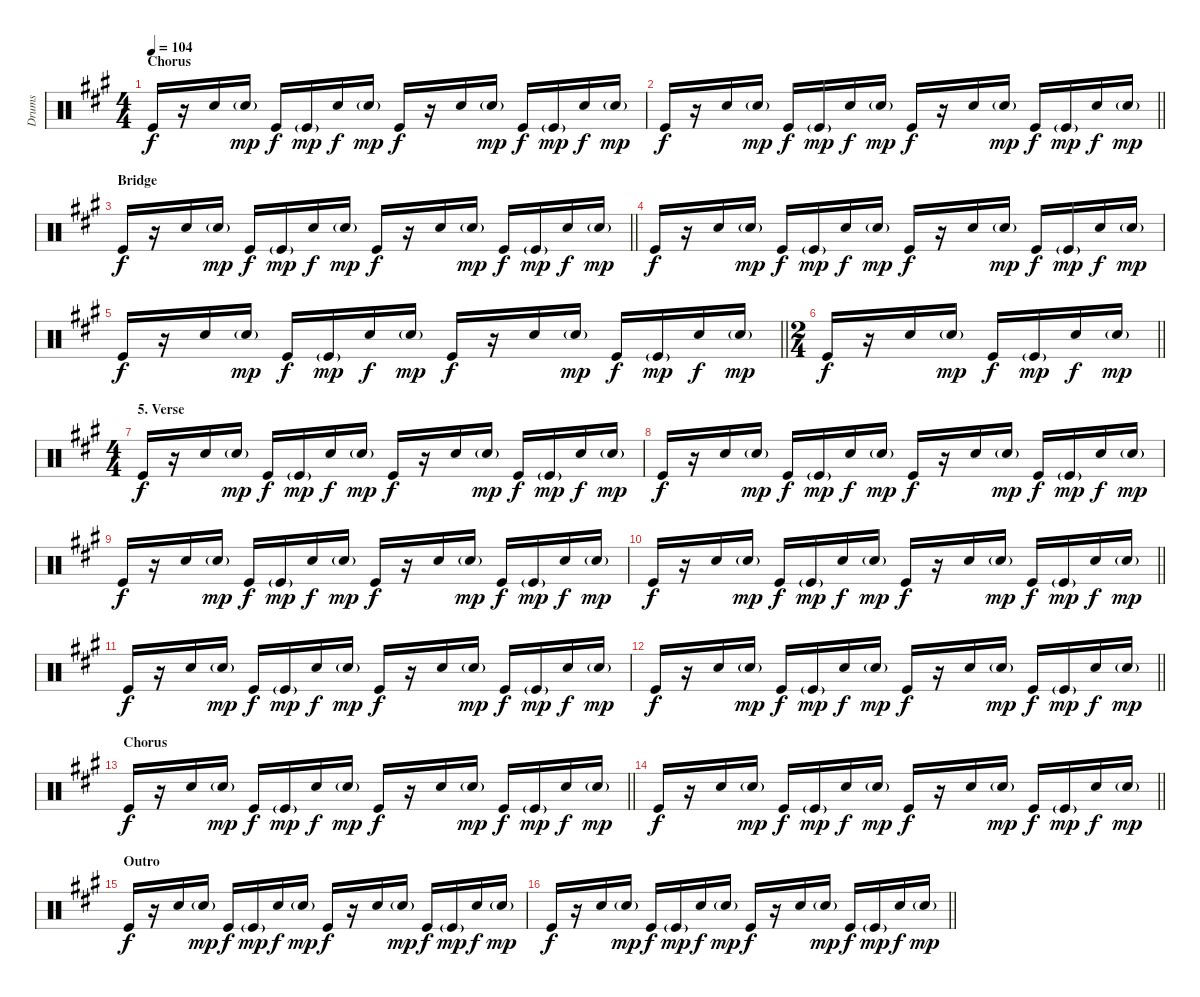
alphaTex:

\track ("Drums" "Drums") {instrument percussion}
\staff {score}
\articulation defaults
\ts (4 4)
\section ("" "Chorus")
\tempo 104
\clef neutral
\ks a "Kick (hit)".16{dy f}
r.16 "Electric Snare (hit)".16 "Electric Snare (hit)"{g}.16{dy mp} "Kick (hit)".16{dy f} "Kick (hit)"{g}.16{dy mp} "Electric Snare (hit)".16{dy f} "Electric Snare (hit)"{g}.16{dy mp} "Kick (hit)".16{dy f} r.16 "Electric Snare (hit)".16 "Electric Snare (hit)"{g}.16{dy mp} "Kick (hit)".16{dy f} "Kick (hit)"{g}.16{dy mp} "Electric Snare (hit)".16{dy f} "Electric Snare (hit)"{g}.16{dy mp} |
\barLineRight lightlight "Kick (hit)".16{dy f}
r.16 "Electric Snare (hit)".16 "Electric Snare (hit)"{g}.16{dy mp} "Kick (hit)".16{dy f} "Kick (hit)"{g}.16{dy mp} "Electric Snare (hit)".16{dy f} "Electric Snare (hit)"{g}.16{dy mp} "Kick (hit)".16{dy f} r.16 "Electric Snare (hit)".16 "Electric Snare (hit)"{g}.16{dy mp} "Kick (hit)".16{dy f} "Kick (hit)"{g}.16{dy mp} "Electric Snare (hit)".16{dy f} "Electric Snare (hit)"{g}.16{dy mp} |
\section ("" "Bridge")
\barLineRight lightlight "Kick (hit)".16{dy f}
r.16 "Electric Snare (hit)".16 "Electric Snare (hit)"{g}.16{dy mp} "Kick (hit)".16{dy f} "Kick (hit)"{g}.16{dy mp} "Electric Snare (hit)".16{dy f} "Electric Snare (hit)"{g}.16{dy mp} "Kick (hit)".16{dy f} r.16 "Electric Snare (hit)".16 "Electric Snare (hit)"{g}.16{dy mp} "Kick (hit)".16{dy f} "Kick (hit)"{g}.16{dy mp} "Electric Snare (hit)".16{dy f} "Electric Snare (hit)"{g}.16{dy mp} |
"Kick (hit)".16{dy f} r.16 "Electric Snare (hit)".16 "Electric Snare (hit)"{g}.16{dy mp} "Kick (hit)".16{dy f} "Kick (hit)"{g}.16{dy mp} "Electric Snare (hit)".16{dy f} "Electric Snare (hit)"{g}.16{dy mp} "Kick (hit)".16{dy f} r.16 "Electric Snare (hit)".16 "Electric Snare (hit)"{g}.16{dy mp} "Kick (hit)".16{dy f} "Kick (hit)"{g}.16{dy mp} "Electric Snare (hit)".16{dy f} "Electric Snare (hit)"{g}.16{dy mp} |
\barLineRight lightlight "Kick (hit)".16{dy f}
r.16 "Electric Snare (hit)".16 "Electric Snare (hit)"{g}.16{dy mp} "Kick (hit)".16{dy f} "Kick (hit)"{g}.16{dy mp} "Electric Snare (hit)".16{dy f} "Electric Snare (hit)"{g}.16{dy mp} "Kick (hit)".16{dy f} r.16 "Electric Snare (hit)".16 "Electric Snare (hit)"{g}.16{dy mp} "Kick (hit)".16{dy f} "Kick (hit)"{g}.16{dy mp} "Electric Snare (hit)".16{dy f} "Electric Snare (hit)"{g}.16{dy mp} |
\ts (2 4)
\barLineRight lightlight "Kick (hit)".16{dy f}
r.16 "Electric Snare (hit)".16 "Electric Snare (hit)"{g}.16{dy mp} "Kick (hit)".16{dy f} "Kick (hit)"{g}.16{dy mp} "Electric Snare (hit)".16{dy f} "Electric Snare (hit)"{g}.16{dy mp} |
\ts (4 4)
\section ("" "5. Verse")
"Kick (hit)".16{dy f} r.16 "Electric Snare (hit)".16 "Electric Snare (hit)"{g}.16{dy mp} "Kick (hit)".16{dy f} "Kick (hit)"{g}.16{dy mp} "Electric Snare (hit)".16{dy f} "Electric Snare (hit)"{g}.16{dy mp} "Kick (hit)".16{dy f} r.16 "Electric Snare (hit)".16 "Electric Snare (hit)"{g}.16{dy mp} "Kick (hit)".16{dy f} "Kick (hit)"{g}.16{dy mp} "Electric Snare (hit)".16{dy f} "Electric Snare (hit)"{g}.16{dy mp} |
"Kick (hit)".16{dy f} r.16 "Electric Snare (hit)".16 "Electric Snare (hit)"{g}.16{dy mp} "Kick (hit)".16{dy f} "Kick (hit)"{g}.16{dy mp} "Electric Snare (hit)".16{dy f} "Electric Snare (hit)"{g}.16{dy mp} "Kick (hit)".16{dy f} r.16 "Electric Snare (hit)".16 "Electric Snare (hit)"{g}.16{dy mp} "Kick (hit)".16{dy f} "Kick (hit)"{g}.16{dy mp} "Electric Snare (hit)".16{dy f} "Electric Snare (hit)"{g}.16{dy mp} |
"Kick (hit)".16{dy f} r.16 "Electric Snare (hit)".16 "Electric Snare (hit)"{g}.16{dy mp} "Kick (hit)".16{dy f} "Kick (hit)"{g}.16{dy mp} "Electric Snare (hit)".16{dy f} "Electric Snare (hit)"{g}.16{dy mp} "Kick (hit)".16{dy f} r.16 "Electric Snare (hit)".16 "Electric Snare (hit)"{g}.16{dy mp} "Kick (hit)".16{dy f} "Kick (hit)"{g}.16{dy mp} "Electric Snare (hit)".16{dy f} "Electric Snare (hit)"{g}.16{dy mp} |
\barLineRight lightlight "Kick (hit)".16{dy f}
r.16 "Electric Snare (hit)".16 "Electric Snare (hit)"{g}.16{dy mp} "Kick (hit)".16{dy f} "Kick (hit)"{g}.16{dy mp} "Electric Snare (hit)".16{dy f} "Electric Snare (hit)"{g}.16{dy mp} "Kick (hit)".16{dy f} r.16 "Electric Snare (hit)".16 "Electric Snare (hit)"{g}.16{dy mp} "Kick (hit)".16{dy f} "Kick (hit)"{g}.16{dy mp} "Electric Snare (hit)".16{dy f} "Electric Snare (hit)"{g}.16{dy mp} |
"Kick (hit)".16{dy f} r.16 "Electric Snare (hit)".16 "Electric Snare (hit)"{g}.16{dy mp} "Kick (hit)".16{dy f} "Kick (hit)"{g}.16{dy mp} "Electric Snare (hit)".16{dy f} "Electric Snare (hit)"{g}.16{dy mp} "Kick (hit)".16{dy f} r.16 "Electric Snare (hit)".16 "Electric Snare (hit)"{g}.16{dy mp} "Kick (hit)".16{dy f} "Kick (hit)"{g}.16{dy mp} "Electric Snare (hit)".16{dy f} "Electric Snare (hit)"{g}.16{dy mp} |
\barLineRight lightlight "Kick (hit)".16{dy f}
r.16 "Electric Snare (hit)".16 "Electric Snare (hit)"{g}.16{dy mp} "Kick (hit)".16{dy f} "Kick (hit)"{g}.16{dy mp} "Electric Snare (hit)".16{dy f} "Electric Snare (hit)"{g}.16{dy mp} "Kick (hit)".16{dy f} r.16 "Electric Snare (hit)".16 "Electric Snare (hit)"{g}.16{dy mp} "Kick (hit)".16{dy f} "Kick (hit)"{g}.16{dy mp} "Electric Snare (hit)".16{dy f} "Electric Snare (hit)"{g}.16{dy mp} |
\section ("" "Chorus")
\barLineRight lightlight "Kick (hit)".16{dy f}
r.16 "Electric Snare (hit)".16 "Electric Snare (hit)"{g}.16{dy mp} "Kick (hit)".16{dy f} "Kick (hit)"{g}.16{dy mp} "Electric Snare (hit)".16{dy f} "Electric Snare (hit)"{g}.16{dy mp} "Kick (hit)".16{dy f} r.16 "Electric Snare (hit)".16 "Electric Snare (hit)"{g}.16{dy mp} "Kick (hit)".16{dy f} "Kick (hit)"{g}.16{dy mp} "Electric Snare (hit)".16{dy f} "Electric Snare (hit)"{g}.16{dy mp} |
\barLineRight lightlight "Kick (hit)".16{dy f}
r.16 "Electric Snare (hit)".16 "Electric Snare (hit)"{g}.16{dy mp} "Kick (hit)".16{dy f} "Kick (hit)"{g}.16{dy mp} "Electric Snare (hit)".16{dy f} "Electric Snare (hit)"{g}.16{dy mp} "Kick (hit)".16{dy f} r.16 "Electric Snare (hit)".16 "Electric Snare (hit)"{g}.16{dy mp} "Kick (hit)".16{dy f} "Kick (hit)"{g}.16{dy mp} "Electric Snare (hit)".16{dy f} "Electric Snare (hit)"{g}.16{dy mp} |
\section ("" "Outro")
"Kick (hit)".16{dy f} r.16 "Electric Snare (hit)".16 "Electric Snare (hit)"{g}.16{dy mp} "Kick (hit)".16{dy f} "Kick (hit)"{g}.16{dy mp} "Electric Snare (hit)".16{dy f} "Electric Snare (hit)"{g}.16{dy mp} "Kick (hit)".16{dy f} r.16 "Electric Snare (hit)".16 "Electric Snare (hit)"{g}.16{dy mp} "Kick (hit)".16{dy f} "Kick (hit)"{g}.16{dy mp} "Electric Snare (hit)".16{dy f} "Electric Snare (hit)"{g}.16{dy mp} |
\barLineRight lightlight "Kick (hit)".16{dy f}
r.16 "Electric Snare (hit)".16 "Electric Snare (hit)"{g}.16{dy mp} "Kick (hit)".16{dy f} "Kick (hit)"{g}.16{dy mp} "Electric Snare (hit)".16{dy f} "Electric Snare (hit)"{g}.16{dy mp} "Kick (hit)".16{dy f} r.16 "Electric Snare (hit)".16 "Electric Snare (hit)"{g}.16{dy mp} "Kick (hit)".16{dy f} "Kick (hit)"{g}.16{dy mp} "Electric Snare (hit)".16{dy f} "Electric Snare (hit)"{g}.16{dy mp}
